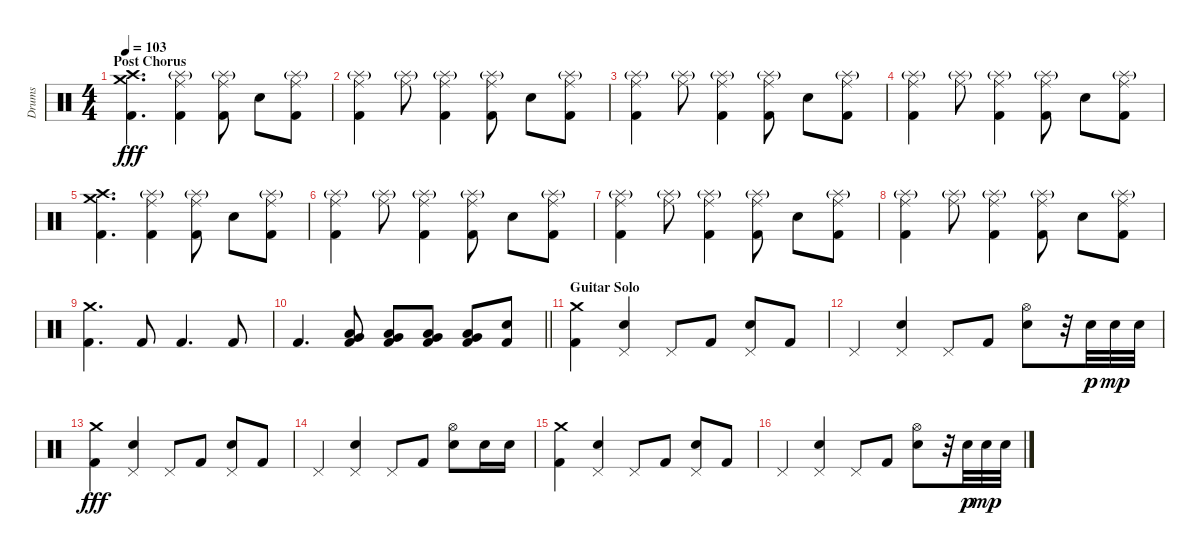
\track ("Drums" "Drums") {instrument percussion}
\staff {score}
\articulation defaults
\ts (4 4)
\section ("" "Post Chorus")
\tempo 103
\clef neutral
\ks c
("Crash medium (hit)" "Crash high (hit)" "Kick (hit) 2").4{d dy fff} ("Ride (middle)" "Splash (hit)"{g} "Kick (hit) 2").4 ("Ride (middle)" "Splash (hit)"{g} "Kick (hit) 2").8 "Snare (hit) 2".8 ("Ride (middle)" "Splash (hit)"{g} "Kick (hit) 2").8 |
("Ride (middle)" "Splash (hit)"{g} "Kick (hit) 2").4 ("Ride (middle)" "Splash (hit)"{g}).8 ("Ride (middle)" "Splash (hit)"{g} "Kick (hit) 2").4 ("Ride (middle)" "Splash (hit)"{g} "Kick (hit) 2").8 "Snare (hit) 2".8 ("Ride (middle)" "Splash (hit)"{g} "Kick (hit) 2").8 |
("Ride (middle)" "Splash (hit)"{g} "Kick (hit) 2").4 ("Ride (middle)" "Splash (hit)"{g}).8 ("Ride (middle)" "Splash (hit)"{g} "Kick (hit) 2").4 ("Ride (middle)" "Splash (hit)"{g} "Kick (hit) 2").8 "Snare (hit) 2".8 ("Ride (middle)" "Splash (hit)"{g} "Kick (hit) 2").8 |
("Ride (middle)" "Splash (hit)"{g} "Kick (hit) 2").4 ("Ride (middle)" "Splash (hit)"{g}).8 ("Ride (middle)" "Splash (hit)"{g} "Kick (hit) 2").4 ("Ride (middle)" "Splash (hit)"{g} "Kick (hit) 2").8 "Snare (hit) 2".8 ("Ride (middle)" "Splash (hit)"{g} "Kick (hit) 2").8 |
("Crash medium (hit)" "Crash high (hit)" "Kick (hit) 2").4{d} ("Ride (middle)" "Splash (hit)"{g} "Kick (hit) 2").4 ("Ride (middle)" "Splash (hit)"{g} "Kick (hit) 2").8 "Snare (hit) 2".8 ("Ride (middle)" "Splash (hit)"{g} "Kick (hit) 2").8 |
("Ride (middle)" "Splash (hit)"{g} "Kick (hit) 2").4 ("Ride (middle)" "Splash (hit)"{g}).8 ("Ride (middle)" "Splash (hit)"{g} "Kick (hit) 2").4 ("Ride (middle)" "Splash (hit)"{g} "Kick (hit) 2").8 "Snare (hit) 2".8 ("Ride (middle)" "Splash (hit)"{g} "Kick (hit) 2").8 |
("Ride (middle)" "Splash (hit)"{g} "Kick (hit) 2").4 ("Ride (middle)" "Splash (hit)"{g}).8 ("Ride (middle)" "Splash (hit)"{g} "Kick (hit) 2").4 ("Ride (middle)" "Splash (hit)"{g} "Kick (hit) 2").8 "Snare (hit) 2".8 ("Ride (middle)" "Splash (hit)"{g} "Kick (hit) 2").8 |
("Ride (middle)" "Splash (hit)"{g} "Kick (hit) 2").4 ("Ride (middle)" "Splash (hit)"{g}).8 ("Ride (middle)" "Splash (hit)"{g} "Kick (hit) 2").4 ("Ride (middle)" "Splash (hit)"{g} "Kick (hit) 2").8 "Snare (hit) 2".8 ("Ride (middle)" "Splash (hit)"{g} "Kick (hit) 2").8 |
("Crash medium (hit)" "Kick (hit) 2").4{d} "Kick (hit) 2".8 "Kick (hit) 2".4{d} "Kick (hit) 2".8 |
\barLineRight lightlight "Kick (hit) 2".4{d}
("Very Low Tom (hit)" "Low Floor Tom (hit)" "Kick (hit) 2").8 ("Very Low Tom (hit)" "Low Floor Tom (hit)" "Kick (hit) 2").8 ("Very Low Tom (hit)" "Low Floor Tom (hit)" "Kick (hit) 2").8 ("Very Low Tom (hit)" "Low Floor Tom (hit)" "Kick (hit) 2").8 ("Snare (hit) 2" "Kick (hit) 2").8 |
\section ("" "Guitar Solo")
("Crash medium (hit)" "Kick (hit) 2").4 ("Pedal Hi-Hat (hit)" "Snare (hit) 2").4 "Pedal Hi-Hat (hit)".8 "Kick (hit) 2".8 ("Pedal Hi-Hat (hit)" "Snare (hit) 2").8 "Kick (hit) 2".8 |
"Pedal Hi-Hat (hit)".4 ("Pedal Hi-Hat (hit)" "Snare (hit) 2").4 "Pedal Hi-Hat (hit)".8 "Kick (hit) 2".8 ("Hi-Hat (open)" "Snare (hit) 2").8 r.32 "Snare (hit) 2".32{dy p} "Snare (hit) 2".32{dy mp} "Snare (hit) 2".32 |
("Crash medium (hit)" "Kick (hit) 2").4{dy fff} ("Pedal Hi-Hat (hit)" "Snare (hit) 2").4 "Pedal Hi-Hat (hit)".8 "Kick (hit) 2".8 ("Pedal Hi-Hat (hit)" "Snare (hit) 2").8 "Kick (hit) 2".8 |
"Pedal Hi-Hat (hit)".4 ("Pedal Hi-Hat (hit)" "Snare (hit) 2").4 "Pedal Hi-Hat (hit)".8 "Kick (hit) 2".8 ("Hi-Hat (open)" "Snare (hit) 2").8 "Snare (hit) 2".16 "Snare (hit) 2".16 |
("Crash medium (hit)" "Kick (hit) 2").4 ("Pedal Hi-Hat (hit)" "Snare (hit) 2").4 "Pedal Hi-Hat (hit)".8 "Kick (hit) 2".8 ("Pedal Hi-Hat (hit)" "Snare (hit) 2").8 "Kick (hit) 2".8 |
"Pedal Hi-Hat (hit)".4 ("Pedal Hi-Hat (hit)" "Snare (hit) 2").4 "Pedal Hi-Hat (hit)".8 "Kick (hit) 2".8 ("Hi-Hat (open)" "Snare (hit) 2").8 r.32 "Snare (hit) 2".32{dy p} "Snare (hit) 2".32{dy mp} "Snare (hit) 2".32
